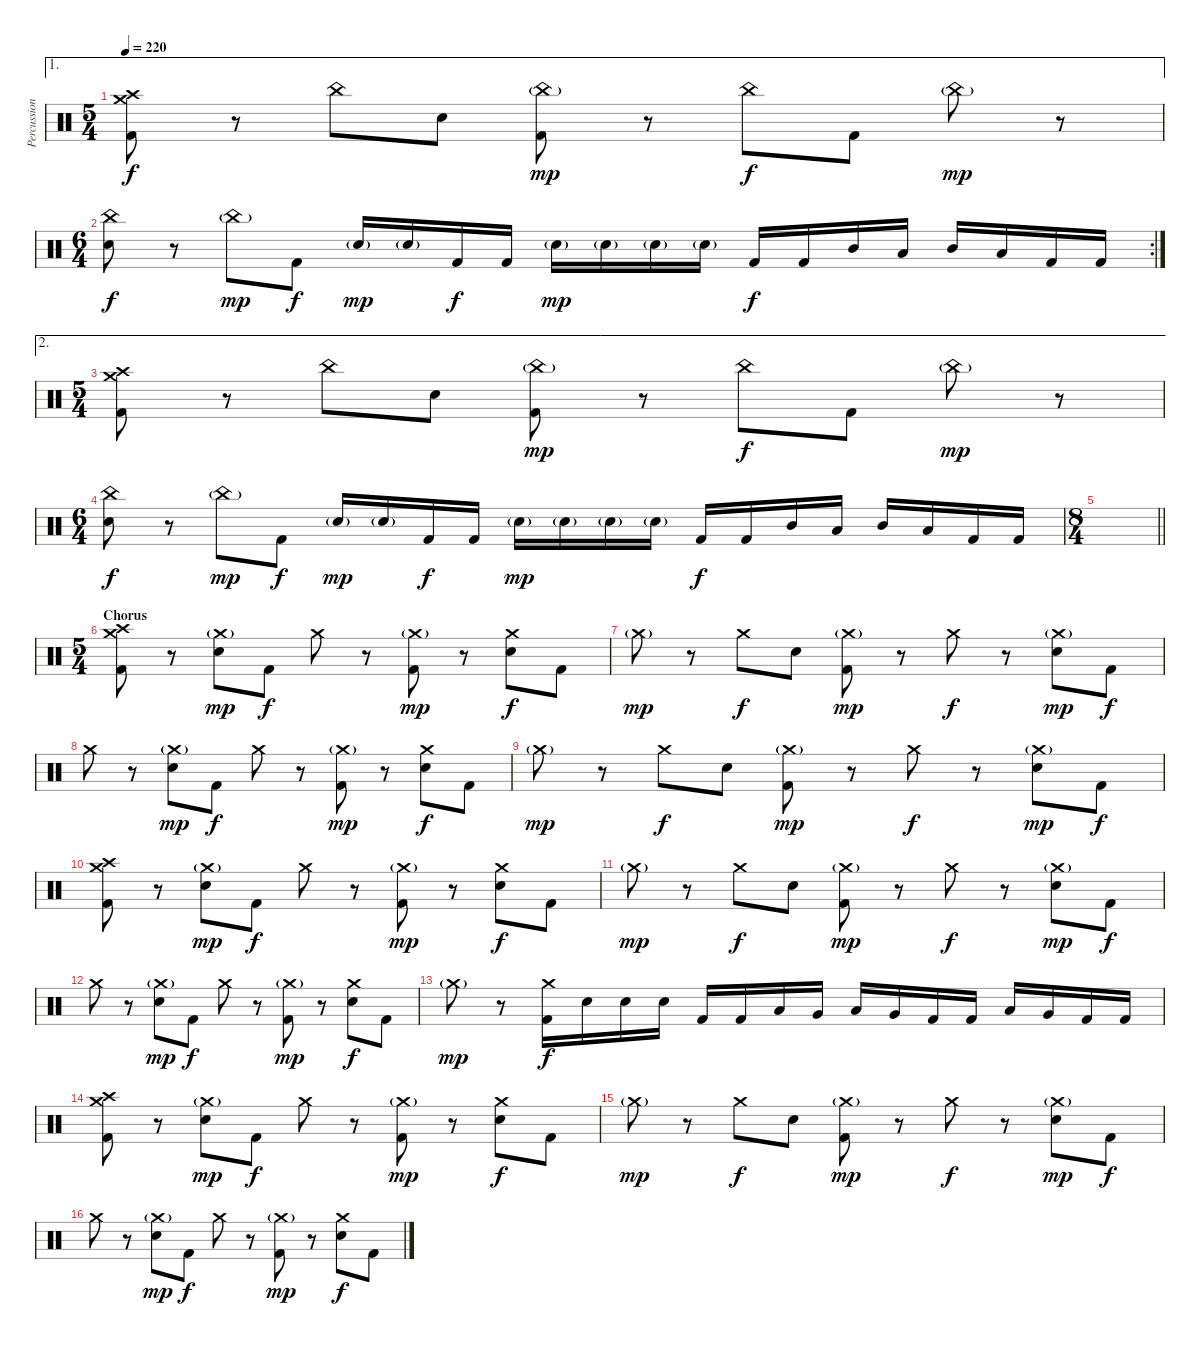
\track ("Percussion" "Percussion") {instrument percussion}
\staff {score}
\articulation defaults
\ae 1
\ts (5 4)
\tempo 220
\clef neutral
\ks c
("Crash medium (hit)" "Crash high (hit)" "Kick (hit) 2").8{dy f} r.8 "China (hit)".8 "Electric Snare (hit)".8 ("China (hit)"{g} "Kick (hit) 2").8{dy mp} r.8 "China (hit)".8{dy f} "Kick (hit) 2".8 "China (hit)"{g}.8{dy mp} r.8 |
\rc 2
\ts (6 4)
("China (hit)" "Electric Snare (hit)").8{dy f} r.8 "China (hit)"{g}.8{dy mp} "Kick (hit) 2".8{dy f} "Electric Snare (hit)"{g}.16{dy mp} "Electric Snare (hit)"{g}.16 "Kick (hit) 2".16{dy f} "Kick (hit) 2".16 "Electric Snare (hit)"{g}.16{dy mp} "Electric Snare (hit)"{g}.16 "Electric Snare (hit)"{g}.16 "Electric Snare (hit)"{g}.16 "Kick (hit) 2".16{dy f} "Kick (hit) 2".16 "Mid Tom (hit)".16 "Low Tom (hit)".16 "Mid Tom (hit)".16 "Low Tom (hit)".16 "Kick (hit) 2".16 "Kick (hit) 2".16 |
\ae 2
\ts (5 4)
("Crash medium (hit)" "Crash high (hit)" "Kick (hit) 2").8 r.8 "China (hit)".8 "Electric Snare (hit)".8 ("China (hit)"{g} "Kick (hit) 2").8{dy mp} r.8 "China (hit)".8{dy f} "Kick (hit) 2".8 "China (hit)"{g}.8{dy mp} r.8 |
\ts (6 4)
("China (hit)" "Electric Snare (hit)").8{dy f} r.8 "China (hit)"{g}.8{dy mp} "Kick (hit) 2".8{dy f} "Electric Snare (hit)"{g}.16{dy mp} "Electric Snare (hit)"{g}.16 "Kick (hit) 2".16{dy f} "Kick (hit) 2".16 "Electric Snare (hit)"{g}.16{dy mp} "Electric Snare (hit)"{g}.16 "Electric Snare (hit)"{g}.16 "Electric Snare (hit)"{g}.16 "Kick (hit) 2".16{dy f} "Kick (hit) 2".16 "Mid Tom (hit)".16 "Low Tom (hit)".16 "Mid Tom (hit)".16 "Low Tom (hit)".16 "Kick (hit) 2".16 "Kick (hit) 2".16 |
\ts (8 4)
\barLineRight lightlight
|
\ts (5 4)
\section ("" "Chorus")
("Crash medium (hit)" "Crash high (hit)" "Kick (hit) 2").8 r.8 ("Crash medium (hit)"{g} "Electric Snare (hit)").8{dy mp} "Kick (hit) 2".8{dy f} "Crash medium (hit)".8 r.8 ("Crash medium (hit)"{g} "Kick (hit) 2").8{dy mp} r.8 ("Crash medium (hit)" "Electric Snare (hit)").8{dy f} "Kick (hit) 2".8 |
"Crash medium (hit)"{g}.8{dy mp} r.8 "Crash medium (hit)".8{dy f} "Electric Snare (hit)".8 ("Crash medium (hit)"{g} "Kick (hit) 2").8{dy mp} r.8 "Crash medium (hit)".8{dy f} r.8 ("Crash medium (hit)"{g} "Electric Snare (hit)").8{dy mp} "Kick (hit) 2".8{dy f} |
"Crash medium (hit)".8 r.8 ("Crash medium (hit)"{g} "Electric Snare (hit)").8{dy mp} "Kick (hit) 2".8{dy f} "Crash medium (hit)".8 r.8 ("Crash medium (hit)"{g} "Kick (hit) 2").8{dy mp} r.8 ("Crash medium (hit)" "Electric Snare (hit)").8{dy f} "Kick (hit) 2".8 |
"Crash medium (hit)"{g}.8{dy mp} r.8 "Crash medium (hit)".8{dy f} "Electric Snare (hit)".8 ("Crash medium (hit)"{g} "Kick (hit) 2").8{dy mp} r.8 "Crash medium (hit)".8{dy f} r.8 ("Crash medium (hit)"{g} "Electric Snare (hit)").8{dy mp} "Kick (hit) 2".8{dy f} |
("Crash medium (hit)" "Crash high (hit)" "Kick (hit) 2").8 r.8 ("Crash medium (hit)"{g} "Electric Snare (hit)").8{dy mp} "Kick (hit) 2".8{dy f} "Crash medium (hit)".8 r.8 ("Crash medium (hit)"{g} "Kick (hit) 2").8{dy mp} r.8 ("Crash medium (hit)" "Electric Snare (hit)").8{dy f} "Kick (hit) 2".8 |
"Crash medium (hit)"{g}.8{dy mp} r.8 "Crash medium (hit)".8{dy f} "Electric Snare (hit)".8 ("Crash medium (hit)"{g} "Kick (hit) 2").8{dy mp} r.8 "Crash medium (hit)".8{dy f} r.8 ("Crash medium (hit)"{g} "Electric Snare (hit)").8{dy mp} "Kick (hit) 2".8{dy f} |
"Crash medium (hit)".8 r.8 ("Crash medium (hit)"{g} "Electric Snare (hit)").8{dy mp} "Kick (hit) 2".8{dy f} "Crash medium (hit)".8 r.8 ("Crash medium (hit)"{g} "Kick (hit) 2").8{dy mp} r.8 ("Crash medium (hit)" "Electric Snare (hit)").8{dy f} "Kick (hit) 2".8 |
"Crash medium (hit)"{g}.8{dy mp} r.8 ("Crash medium (hit)" "Kick (hit) 2").16{dy f} "Electric Snare (hit)".16 "Electric Snare (hit)".16 "Electric Snare (hit)".16 "Kick (hit) 2".16 "Kick (hit) 2".16 "Low Floor Tom (hit)".16 "Very Low Tom (hit)".16 "Low Floor Tom (hit)".16 "Very Low Tom (hit)".16 "Kick (hit) 2".16 "Kick (hit) 2".16 "Low Floor Tom (hit)".16 "Very Low Tom (hit)".16 "Kick (hit) 2".16 "Kick (hit) 2".16 |
("Crash medium (hit)" "Crash high (hit)" "Kick (hit) 2").8 r.8 ("Crash medium (hit)"{g} "Electric Snare (hit)").8{dy mp} "Kick (hit) 2".8{dy f} "Crash medium (hit)".8 r.8 ("Crash medium (hit)"{g} "Kick (hit) 2").8{dy mp} r.8 ("Crash medium (hit)" "Electric Snare (hit)").8{dy f} "Kick (hit) 2".8 |
"Crash medium (hit)"{g}.8{dy mp} r.8 "Crash medium (hit)".8{dy f} "Electric Snare (hit)".8 ("Crash medium (hit)"{g} "Kick (hit) 2").8{dy mp} r.8 "Crash medium (hit)".8{dy f} r.8 ("Crash medium (hit)"{g} "Electric Snare (hit)").8{dy mp} "Kick (hit) 2".8{dy f} |
"Crash medium (hit)".8 r.8 ("Crash medium (hit)"{g} "Electric Snare (hit)").8{dy mp} "Kick (hit) 2".8{dy f} "Crash medium (hit)".8 r.8 ("Crash medium (hit)"{g} "Kick (hit) 2").8{dy mp} r.8 ("Crash medium (hit)" "Electric Snare (hit)").8{dy f} "Kick (hit) 2".8
